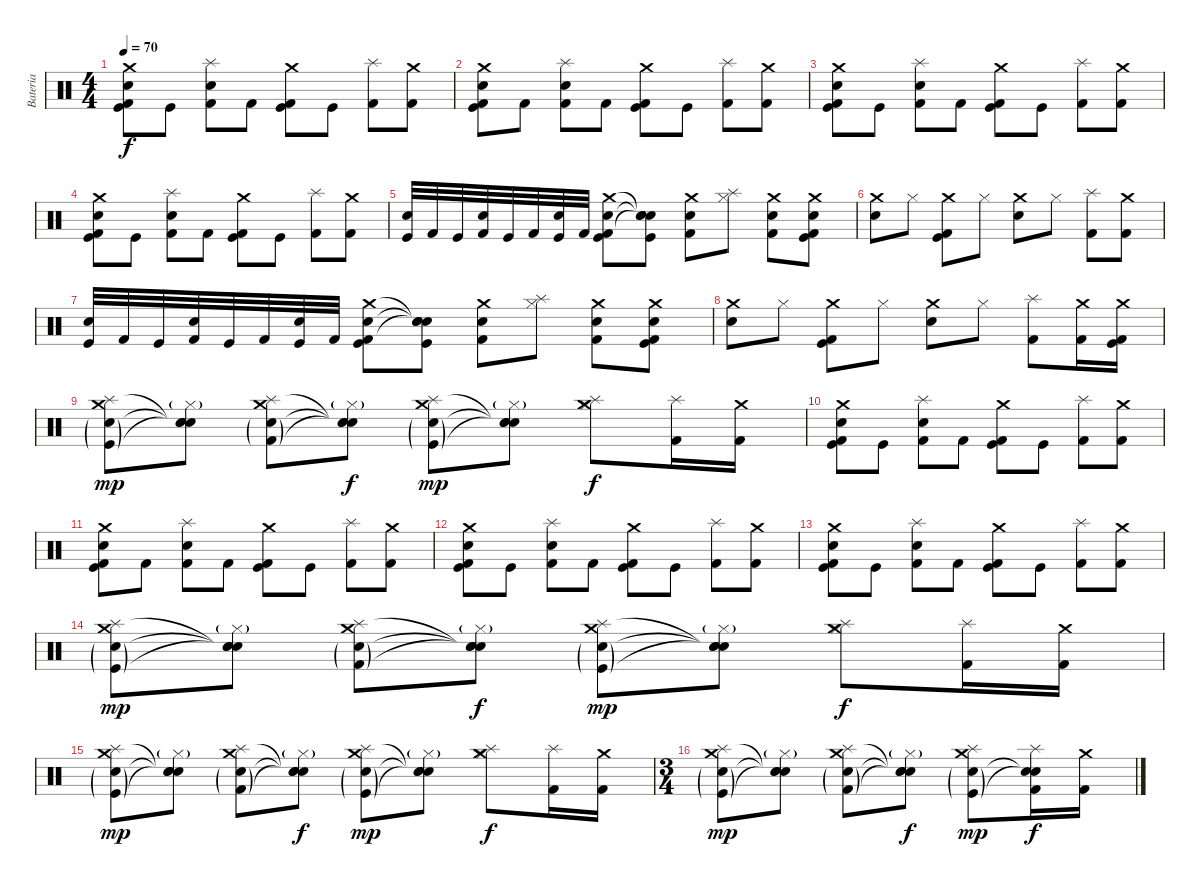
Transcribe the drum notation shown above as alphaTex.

\track ("Bateria" "Bateria") {instrument percussion}
\staff {score}
\articulation defaults
\ts (4 4)
\tempo 70
\clef neutral
\ks c
("Kick (hit)" "Kick (hit) 2" "Snare (hit) 2" "Crash medium (hit)").8{dy f} "Kick (hit)".8 ("Snare (hit) 2" "Kick (hit) 2" "Splash (hit)").8 "Kick (hit) 2".8 ("Kick (hit)" "Kick (hit) 2" "Crash medium (hit)").8 "Kick (hit)".8 ("Splash (hit)" "Kick (hit) 2").8 ("Crash medium (hit)" "Kick (hit) 2").8 |
("Kick (hit)" "Kick (hit) 2" "Snare (hit) 2" "Crash medium (hit)").8 "Kick (hit) 2".8 ("Snare (hit) 2" "Kick (hit) 2" "Splash (hit)").8 "Kick (hit) 2".8 ("Kick (hit)" "Kick (hit) 2" "Crash medium (hit)").8 "Kick (hit)".8 ("Splash (hit)" "Kick (hit) 2").8 ("Crash medium (hit)" "Kick (hit) 2").8 |
("Kick (hit)" "Kick (hit) 2" "Snare (hit) 2" "Crash medium (hit)").8 "Kick (hit)".8 ("Snare (hit) 2" "Kick (hit) 2" "Splash (hit)").8 "Kick (hit) 2".8 ("Kick (hit)" "Kick (hit) 2" "Crash medium (hit)").8 "Kick (hit)".8 ("Splash (hit)" "Kick (hit) 2").8 ("Crash medium (hit)" "Kick (hit) 2").8 |
("Kick (hit)" "Kick (hit) 2" "Snare (hit) 2" "Crash medium (hit)").8 "Kick (hit)".8 ("Snare (hit) 2" "Kick (hit) 2" "Splash (hit)").8 "Kick (hit) 2".8 ("Kick (hit)" "Kick (hit) 2" "Crash medium (hit)").8 "Kick (hit)".8 ("Splash (hit)" "Kick (hit) 2").8 ("Crash medium (hit)" "Kick (hit) 2").8 |
("Kick (hit)" "Snare (hit) 2").32 "Kick (hit) 2".32 "Kick (hit)".32 ("Kick (hit) 2" "Snare (hit) 2").32 "Kick (hit)".32 "Kick (hit) 2".32 ("Kick (hit)" "Snare (hit) 2").32 "Kick (hit) 2".32 ("Kick (hit)" "Kick (hit) 2" "Snare (hit) 2" "Crash medium (hit)").8 ("Kick (hit)" "Snare (hit)"{t} "Snare (hit)"{t} "Snare (hit)"{t}).8 ("Snare (hit) 2" "Kick (hit) 2" "Crash medium (hit)").8 ("Splash (hit)" "Hi-Hat (closed)").8 ("Crash medium (hit)" "Kick (hit) 2" "Snare (hit) 2").8 ("Crash medium (hit)" "Kick (hit) 2" "Snare (hit) 2" "Kick (hit)").8 |
("Snare (hit) 2" "Crash medium (hit)").8 "Hi-Hat (closed)".8 ("Kick (hit)" "Kick (hit) 2" "Crash medium (hit)").8 "Hi-Hat (closed)".8 ("Snare (hit) 2" "Crash medium (hit)").8 "Hi-Hat (closed)".8 ("Splash (hit)" "Kick (hit) 2").8 ("Crash medium (hit)" "Kick (hit) 2").8 |
("Kick (hit)" "Snare (hit) 2").32 "Kick (hit) 2".32 "Kick (hit)".32 ("Kick (hit) 2" "Snare (hit) 2").32 "Kick (hit)".32 "Kick (hit) 2".32 ("Kick (hit)" "Snare (hit) 2").32 "Kick (hit) 2".32 ("Kick (hit)" "Kick (hit) 2" "Snare (hit) 2" "Crash medium (hit)").8 ("Kick (hit)" "Snare (hit)"{t} "Snare (hit)"{t} "Snare (hit)"{t}).8 ("Snare (hit) 2" "Kick (hit) 2" "Crash medium (hit)").8 ("Splash (hit)" "Hi-Hat (closed)").8 ("Crash medium (hit)" "Kick (hit) 2" "Snare (hit) 2").8 ("Crash medium (hit)" "Kick (hit) 2" "Snare (hit) 2" "Kick (hit)").8 |
("Snare (hit) 2" "Crash medium (hit)").8 "Hi-Hat (closed)".8 ("Kick (hit)" "Kick (hit) 2" "Crash medium (hit)").8 "Hi-Hat (closed)".8 ("Snare (hit) 2" "Crash medium (hit)").8 "Hi-Hat (closed)".8 ("Splash (hit)" "Kick (hit) 2").8 ("Crash medium (hit)" "Kick (hit) 2").16 ("Crash medium (hit)" "Kick (hit) 2" "Kick (hit)").16 |
("Crash medium (hit)" "Splash (hit)" "Kick (hit)"{g} "Snare (hit) 2"{g}).8{dy mp} ("Hi-Hat (closed)"{g} "Snare (hit)"{t} "Snare (hit)"{t} "Snare (hit)"{t}).8 ("Crash medium (hit)" "Splash (hit)" "Kick (hit) 2"{g} "Snare (hit) 2"{g}).8 ("Hi-Hat (closed)"{g} "Snare (hit)"{t} "Snare (hit)"{t} "Snare (hit)"{t}).8{dy f} ("Crash medium (hit)" "Splash (hit)" "Kick (hit)"{g} "Snare (hit) 2"{g}).8{dy mp} ("Hi-Hat (closed)"{g} "Snare (hit)"{t} "Snare (hit)"{t} "Snare (hit)"{t}).8 ("Hi-Hat (closed)" "Crash medium (hit)" "Splash (hit)").8{dy f} ("Splash (hit)" "Kick (hit) 2").16 ("Crash medium (hit)" "Kick (hit) 2").16 |
("Kick (hit)" "Kick (hit) 2" "Snare (hit) 2" "Crash medium (hit)").8 "Kick (hit)".8 ("Snare (hit) 2" "Kick (hit) 2" "Splash (hit)").8 "Kick (hit) 2".8 ("Kick (hit)" "Kick (hit) 2" "Crash medium (hit)").8 "Kick (hit)".8 ("Splash (hit)" "Kick (hit) 2").8 ("Crash medium (hit)" "Kick (hit) 2").8 |
("Kick (hit)" "Kick (hit) 2" "Snare (hit) 2" "Crash medium (hit)").8 "Kick (hit) 2".8 ("Snare (hit) 2" "Kick (hit) 2" "Splash (hit)").8 "Kick (hit) 2".8 ("Kick (hit)" "Kick (hit) 2" "Crash medium (hit)").8 "Kick (hit)".8 ("Splash (hit)" "Kick (hit) 2").8 ("Crash medium (hit)" "Kick (hit) 2").8 |
("Kick (hit)" "Kick (hit) 2" "Snare (hit) 2" "Crash medium (hit)").8 "Kick (hit)".8 ("Snare (hit) 2" "Kick (hit) 2" "Splash (hit)").8 "Kick (hit) 2".8 ("Kick (hit)" "Kick (hit) 2" "Crash medium (hit)").8 "Kick (hit)".8 ("Splash (hit)" "Kick (hit) 2").8 ("Crash medium (hit)" "Kick (hit) 2").8 |
("Kick (hit)" "Kick (hit) 2" "Snare (hit) 2" "Crash medium (hit)").8 "Kick (hit)".8 ("Snare (hit) 2" "Kick (hit) 2" "Splash (hit)").8 "Kick (hit) 2".8 ("Kick (hit)" "Kick (hit) 2" "Crash medium (hit)").8 "Kick (hit)".8 ("Splash (hit)" "Kick (hit) 2").8 ("Crash medium (hit)" "Kick (hit) 2").8 |
("Crash medium (hit)" "Splash (hit)" "Kick (hit)"{g} "Snare (hit) 2"{g}).8{dy mp} ("Hi-Hat (closed)"{g} "Snare (hit)"{t} "Snare (hit)"{t} "Snare (hit)"{t}).8 ("Crash medium (hit)" "Splash (hit)" "Kick (hit) 2"{g} "Snare (hit) 2"{g}).8 ("Hi-Hat (closed)"{g} "Snare (hit)"{t} "Snare (hit)"{t} "Snare (hit)"{t}).8{dy f} ("Crash medium (hit)" "Splash (hit)" "Kick (hit)"{g} "Snare (hit) 2"{g}).8{dy mp} ("Hi-Hat (closed)"{g} "Snare (hit)"{t} "Snare (hit)"{t} "Snare (hit)"{t}).8 ("Hi-Hat (closed)" "Crash medium (hit)" "Splash (hit)").8{dy f} ("Splash (hit)" "Kick (hit) 2").16 ("Crash medium (hit)" "Kick (hit) 2").16 |
("Crash medium (hit)" "Splash (hit)" "Kick (hit)"{g} "Snare (hit) 2"{g}).8{dy mp} ("Hi-Hat (closed)"{g} "Snare (hit)"{t} "Snare (hit)"{t} "Snare (hit)"{t}).8 ("Crash medium (hit)" "Splash (hit)" "Kick (hit) 2"{g} "Snare (hit) 2"{g}).8 ("Hi-Hat (closed)"{g} "Snare (hit)"{t} "Snare (hit)"{t} "Snare (hit)"{t}).8{dy f} ("Crash medium (hit)" "Splash (hit)" "Kick (hit)"{g} "Snare (hit) 2"{g}).8{dy mp} ("Hi-Hat (closed)"{g} "Snare (hit)"{t} "Snare (hit)"{t} "Snare (hit)"{t}).8 ("Hi-Hat (closed)" "Crash medium (hit)" "Splash (hit)").8{dy f} ("Splash (hit)" "Kick (hit) 2").16 ("Crash medium (hit)" "Kick (hit) 2").16 |
\ts (3 4)
("Crash medium (hit)" "Splash (hit)" "Kick (hit)"{g} "Snare (hit) 2"{g}).8{dy mp} ("Hi-Hat (closed)"{g} "Snare (hit)"{t} "Snare (hit)"{t} "Snare (hit)"{t}).8 ("Crash medium (hit)" "Splash (hit)" "Kick (hit) 2"{g} "Snare (hit) 2"{g}).8 ("Hi-Hat (closed)"{g} "Snare (hit)"{t} "Snare (hit)"{t} "Snare (hit)"{t}).8{dy f} ("Crash medium (hit)" "Splash (hit)" "Kick (hit)"{g} "Snare (hit) 2"{g}).8{dy mp} ("Splash (hit)" "Kick (hit) 2" "Snare (hit)"{t} "Snare (hit)"{t}).16{dy f} ("Crash medium (hit)" "Kick (hit) 2").16
